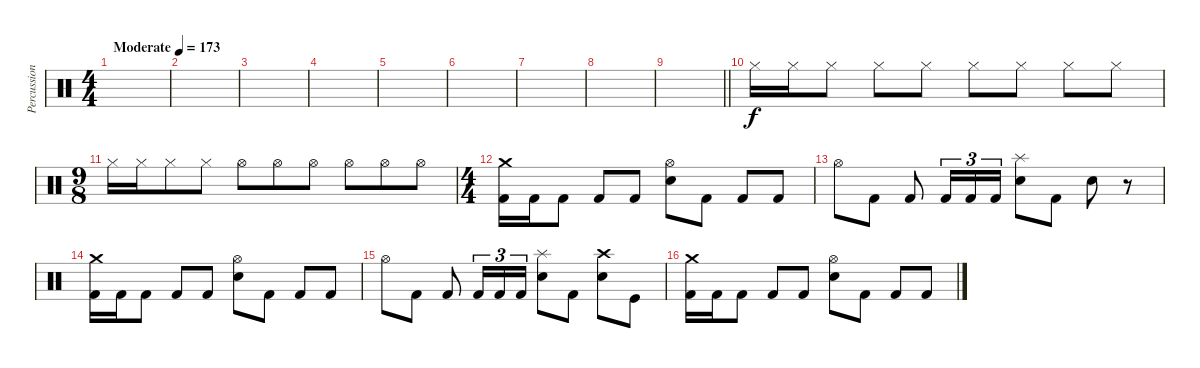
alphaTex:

\track ("Percussion" "Percussion") {instrument percussion}
\staff {score}
\articulation defaults
\ts (4 4)
\tempo (173 "Moderate")
\clef neutral
\ks c
|
|
|
|
|
|
|
|
\barLineRight lightlight
|
"Hi-Hat (closed)".16{volume 16} "Hi-Hat (closed)".16 "Hi-Hat (closed)".8 "Hi-Hat (closed)".8 "Hi-Hat (closed)".8 "Hi-Hat (closed)".8 "Hi-Hat (closed)".8 "Hi-Hat (closed)".8 "Hi-Hat (closed)".8 |
\ts (9 8)
"Hi-Hat (closed)".16 "Hi-Hat (closed)".16 "Hi-Hat (closed)".8 "Hi-Hat (closed)".8 "Hi-Hat (open)".8 "Hi-Hat (open)".8 "Hi-Hat (open)".8 "Hi-Hat (open)".8 "Hi-Hat (open)".8 "Hi-Hat (open)".8 |
\ts (4 4)
("Crash medium (hit)" "Kick (hit) 2").16 "Kick (hit) 2".16 "Kick (hit) 2".8 "Kick (hit) 2".8 "Kick (hit) 2".8 ("Hi-Hat (open)" "Electric Snare (hit)").8 "Kick (hit) 2".8 "Kick (hit) 2".8 "Kick (hit) 2".8 |
"Hi-Hat (open)".8 "Kick (hit) 2".8 "Kick (hit) 2".8 "Kick (hit) 2".16{tu (3 2)} "Kick (hit) 2".16{tu (3 2)} "Kick (hit) 2".16{tu (3 2)} ("Splash (hit)" "Electric Snare (hit)").8 "Kick (hit) 2".8 "Electric Snare (hit)".8 r.8 |
("Crash medium (hit)" "Kick (hit) 2").16 "Kick (hit) 2".16 "Kick (hit) 2".8 "Kick (hit) 2".8 "Kick (hit) 2".8 ("Hi-Hat (open)" "Electric Snare (hit)").8 "Kick (hit) 2".8 "Kick (hit) 2".8 "Kick (hit) 2".8 |
"Hi-Hat (open)".8 "Kick (hit) 2".8 "Kick (hit) 2".8 "Kick (hit) 2".16{tu (3 2)} "Kick (hit) 2".16{tu (3 2)} "Kick (hit) 2".16{tu (3 2)} ("Splash (hit)" "Electric Snare (hit)").8 "Kick (hit) 2".8 ("Crash high (hit)" "Electric Snare (hit)").8 "Kick (hit)".8 |
("Crash medium (hit)" "Kick (hit) 2").16 "Kick (hit) 2".16 "Kick (hit) 2".8 "Kick (hit) 2".8 "Kick (hit) 2".8 ("Hi-Hat (open)" "Electric Snare (hit)").8 "Kick (hit) 2".8 "Kick (hit) 2".8 "Kick (hit) 2".8
